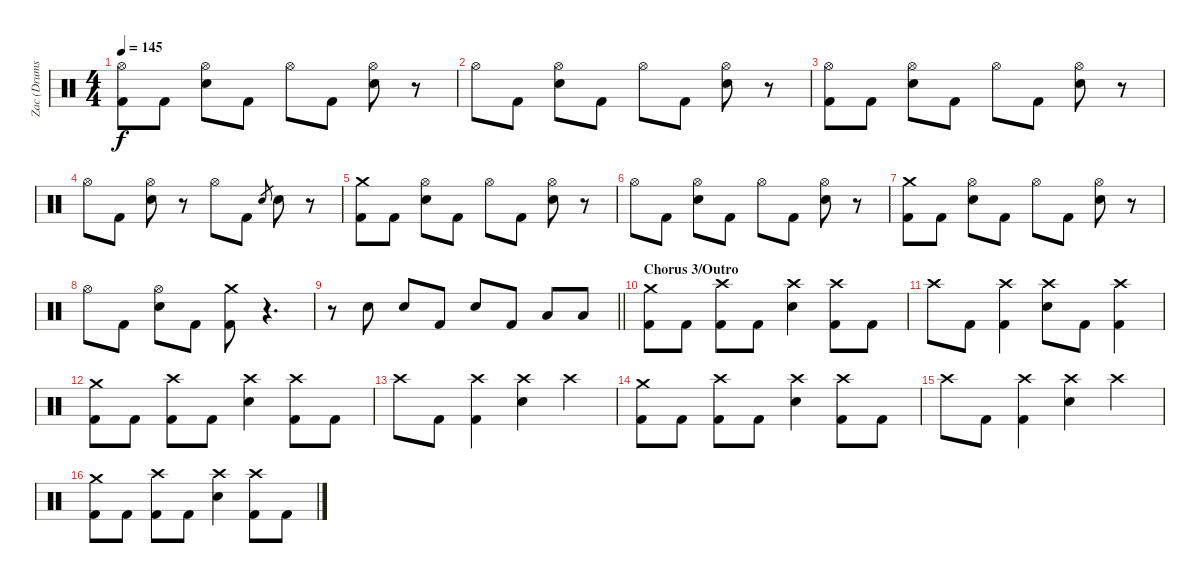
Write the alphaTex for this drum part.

\track ("Zac (Drums)" "Zac (Drums") {instrument percussion}
\staff {score}
\articulation defaults
\ts (4 4)
\tempo 145
\clef neutral
\ks c
("Hi-Hat (open)" "Kick (hit) 2").8{dy f} "Kick (hit) 2".8 ("Hi-Hat (open)" "Electric Snare (hit)").8 "Kick (hit) 2".8 "Hi-Hat (open)".8 "Kick (hit) 2".8 ("Hi-Hat (open)" "Electric Snare (hit)").8 r.8 |
"Hi-Hat (open)".8 "Kick (hit) 2".8 ("Hi-Hat (open)" "Electric Snare (hit)").8 "Kick (hit) 2".8 "Hi-Hat (open)".8 "Kick (hit) 2".8 ("Hi-Hat (open)" "Electric Snare (hit)").8 r.8 |
("Hi-Hat (open)" "Kick (hit) 2").8 "Kick (hit) 2".8 ("Hi-Hat (open)" "Electric Snare (hit)").8 "Kick (hit) 2".8 "Hi-Hat (open)".8 "Kick (hit) 2".8 ("Hi-Hat (open)" "Electric Snare (hit)").8 r.8 |
"Hi-Hat (open)".8 "Kick (hit) 2".8 ("Hi-Hat (open)" "Electric Snare (hit)").8 r.8 "Hi-Hat (open)".8 "Kick (hit) 2".8 "Electric Snare (hit)".8{gr} "Electric Snare (hit)".8 r.8 |
("Crash medium (hit)" "Kick (hit) 2").8 "Kick (hit) 2".8 ("Hi-Hat (open)" "Electric Snare (hit)").8 "Kick (hit) 2".8 "Hi-Hat (open)".8 "Kick (hit) 2".8 ("Hi-Hat (open)" "Electric Snare (hit)").8 r.8 |
"Hi-Hat (open)".8 "Kick (hit) 2".8 ("Hi-Hat (open)" "Electric Snare (hit)").8 "Kick (hit) 2".8 "Hi-Hat (open)".8 "Kick (hit) 2".8 ("Hi-Hat (open)" "Electric Snare (hit)").8 r.8 |
("Crash medium (hit)" "Kick (hit) 2").8 "Kick (hit) 2".8 ("Hi-Hat (open)" "Electric Snare (hit)").8 "Kick (hit) 2".8 "Hi-Hat (open)".8 "Kick (hit) 2".8 ("Hi-Hat (open)" "Electric Snare (hit)").8 r.8 |
"Hi-Hat (open)".8 "Kick (hit) 2".8 ("Hi-Hat (open)" "Electric Snare (hit)").8 "Kick (hit) 2".8 ("Crash medium (hit)" "Kick (hit) 2").8 r.4{d} |
\barLineRight lightlight
r.8 "Electric Snare (hit)".8 "Electric Snare (hit)".8 "Kick (hit) 2".8 "Electric Snare (hit)".8 "Kick (hit) 2".8 "Low Floor Tom (hit)".8 "Low Floor Tom (hit)".8 |
\section ("" "Chorus 3/Outro")
("Crash medium (hit)" "Kick (hit) 2").8 "Kick (hit) 2".8 ("Crash high (hit)" "Kick (hit) 2").8 "Kick (hit) 2".8 ("Crash high (hit)" "Electric Snare (hit)").4 ("Crash high (hit)" "Kick (hit) 2").8 "Kick (hit) 2".8 |
"Crash high (hit)".8 "Kick (hit) 2".8 ("Crash high (hit)" "Kick (hit) 2").4 ("Crash high (hit)" "Electric Snare (hit)").8 "Kick (hit) 2".8 ("Crash high (hit)" "Kick (hit) 2").4 |
("Crash medium (hit)" "Kick (hit) 2").8 "Kick (hit) 2".8 ("Crash high (hit)" "Kick (hit) 2").8 "Kick (hit) 2".8 ("Crash high (hit)" "Electric Snare (hit)").4 ("Crash high (hit)" "Kick (hit) 2").8 "Kick (hit) 2".8 |
"Crash high (hit)".8 "Kick (hit) 2".8 ("Crash high (hit)" "Kick (hit) 2").4 ("Crash high (hit)" "Electric Snare (hit)").4 "Crash high (hit)".4 |
("Crash medium (hit)" "Kick (hit) 2").8 "Kick (hit) 2".8 ("Crash high (hit)" "Kick (hit) 2").8 "Kick (hit) 2".8 ("Crash high (hit)" "Electric Snare (hit)").4 ("Crash high (hit)" "Kick (hit) 2").8 "Kick (hit) 2".8 |
"Crash high (hit)".8 "Kick (hit) 2".8 ("Crash high (hit)" "Kick (hit) 2").4 ("Crash high (hit)" "Electric Snare (hit)").4 "Crash high (hit)".4 |
("Crash medium (hit)" "Kick (hit) 2").8 "Kick (hit) 2".8 ("Crash high (hit)" "Kick (hit) 2").8 "Kick (hit) 2".8 ("Crash high (hit)" "Electric Snare (hit)").4 ("Crash high (hit)" "Kick (hit) 2").8 "Kick (hit) 2".8
